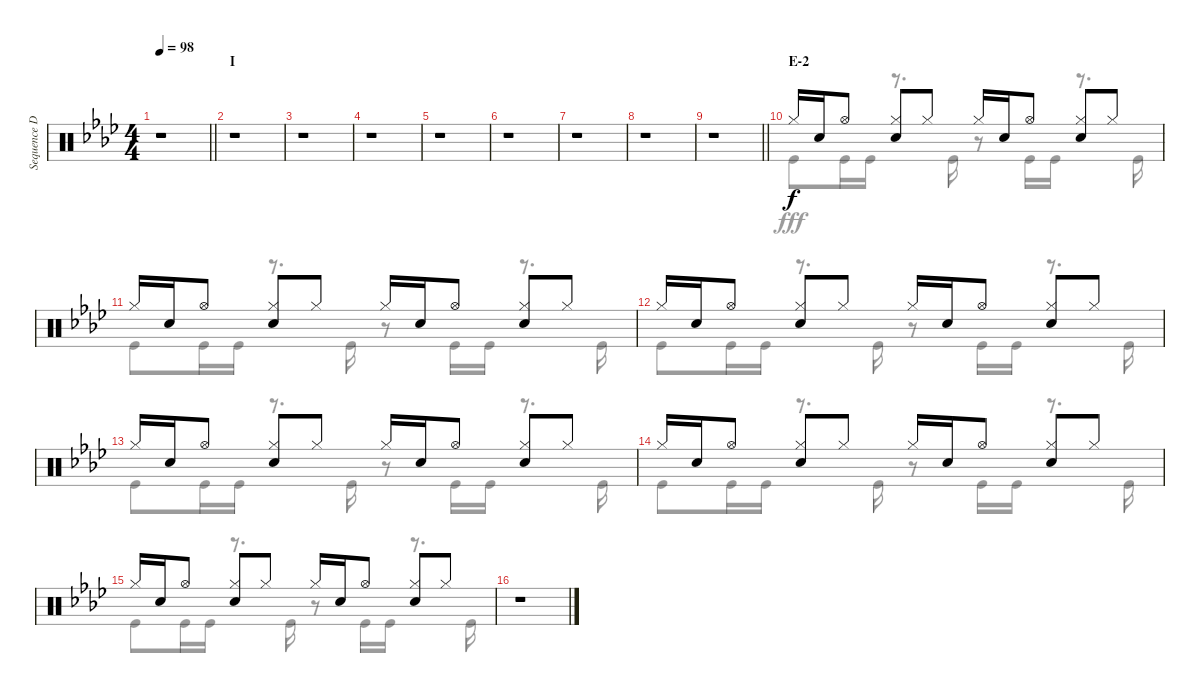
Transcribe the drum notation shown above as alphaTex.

\track ("Sequence Drums II" "Sequence D") {instrument percussion}
\staff {score}
\articulation defaults
\voice
\ts (4 4)
\tempo 98
\clef neutral
\barLineRight lightlight
\ks ab
r.1{dy f} |
\section ("" "I")
r.1 |
r.1 |
r.1 |
r.1 |
r.1 |
r.1 |
r.1 |
\barLineRight lightlight
r.1 |
\section ("" "E-2")
"Hi-Hat (closed)".16 "Snare (hit) 2".16 "Hi-Hat (open)".8 ("Hi-Hat (closed)" "Snare (hit) 2").8 "Hi-Hat (closed)".8 "Hi-Hat (closed)".16 "Snare (hit) 2".16 "Hi-Hat (open)".8 ("Hi-Hat (closed)" "Snare (hit) 2").8 "Hi-Hat (closed)".8 |
"Hi-Hat (closed)".16 "Snare (hit) 2".16 "Hi-Hat (open)".8 ("Hi-Hat (closed)" "Snare (hit) 2").8 "Hi-Hat (closed)".8 "Hi-Hat (closed)".16 "Snare (hit) 2".16 "Hi-Hat (open)".8 ("Hi-Hat (closed)" "Snare (hit) 2").8 "Hi-Hat (closed)".8 |
"Hi-Hat (closed)".16 "Snare (hit) 2".16 "Hi-Hat (open)".8 ("Hi-Hat (closed)" "Snare (hit) 2").8 "Hi-Hat (closed)".8 "Hi-Hat (closed)".16 "Snare (hit) 2".16 "Hi-Hat (open)".8 ("Hi-Hat (closed)" "Snare (hit) 2").8 "Hi-Hat (closed)".8 |
"Hi-Hat (closed)".16 "Snare (hit) 2".16 "Hi-Hat (open)".8 ("Hi-Hat (closed)" "Snare (hit) 2").8 "Hi-Hat (closed)".8 "Hi-Hat (closed)".16 "Snare (hit) 2".16 "Hi-Hat (open)".8 ("Hi-Hat (closed)" "Snare (hit) 2").8 "Hi-Hat (closed)".8 |
"Hi-Hat (closed)".16 "Snare (hit) 2".16 "Hi-Hat (open)".8 ("Hi-Hat (closed)" "Snare (hit) 2").8 "Hi-Hat (closed)".8 "Hi-Hat (closed)".16 "Snare (hit) 2".16 "Hi-Hat (open)".8 ("Hi-Hat (closed)" "Snare (hit) 2").8 "Hi-Hat (closed)".8 |
"Hi-Hat (closed)".16 "Snare (hit) 2".16 "Hi-Hat (open)".8 ("Hi-Hat (closed)" "Snare (hit) 2").8 "Hi-Hat (closed)".8 "Hi-Hat (closed)".16 "Snare (hit) 2".16 "Hi-Hat (open)".8 ("Hi-Hat (closed)" "Snare (hit) 2").8 "Hi-Hat (closed)".8 |
r.1
\voice
\clef neutral
\ottava regular
\simile none
\barLineRight lightlight
\ks ab
r.1{dy fff} |
r.1 |
r.1 |
r.1 |
r.1 |
r.1 |
r.1 |
r.1 |
\barLineRight lightlight
r.1 |
"Kick (hit)".8 "Kick (hit)".16 "Kick (hit)".16 r.8{d} "Kick (hit)".16 r.8 "Kick (hit)".16 "Kick (hit)".16 r.8{d} "Kick (hit)".16 |
"Kick (hit)".8 "Kick (hit)".16 "Kick (hit)".16 r.8{d} "Kick (hit)".16 r.8 "Kick (hit)".16 "Kick (hit)".16 r.8{d} "Kick (hit)".16 |
"Kick (hit)".8 "Kick (hit)".16 "Kick (hit)".16 r.8{d} "Kick (hit)".16 r.8 "Kick (hit)".16 "Kick (hit)".16 r.8{d} "Kick (hit)".16 |
"Kick (hit)".8 "Kick (hit)".16 "Kick (hit)".16 r.8{d} "Kick (hit)".16 r.8 "Kick (hit)".16 "Kick (hit)".16 r.8{d} "Kick (hit)".16 |
"Kick (hit)".8 "Kick (hit)".16 "Kick (hit)".16 r.8{d} "Kick (hit)".16 r.8 "Kick (hit)".16 "Kick (hit)".16 r.8{d} "Kick (hit)".16 |
"Kick (hit)".8 "Kick (hit)".16 "Kick (hit)".16 r.8{d} "Kick (hit)".16 r.8 "Kick (hit)".16 "Kick (hit)".16 r.8{d} "Kick (hit)".16 |
r.1
